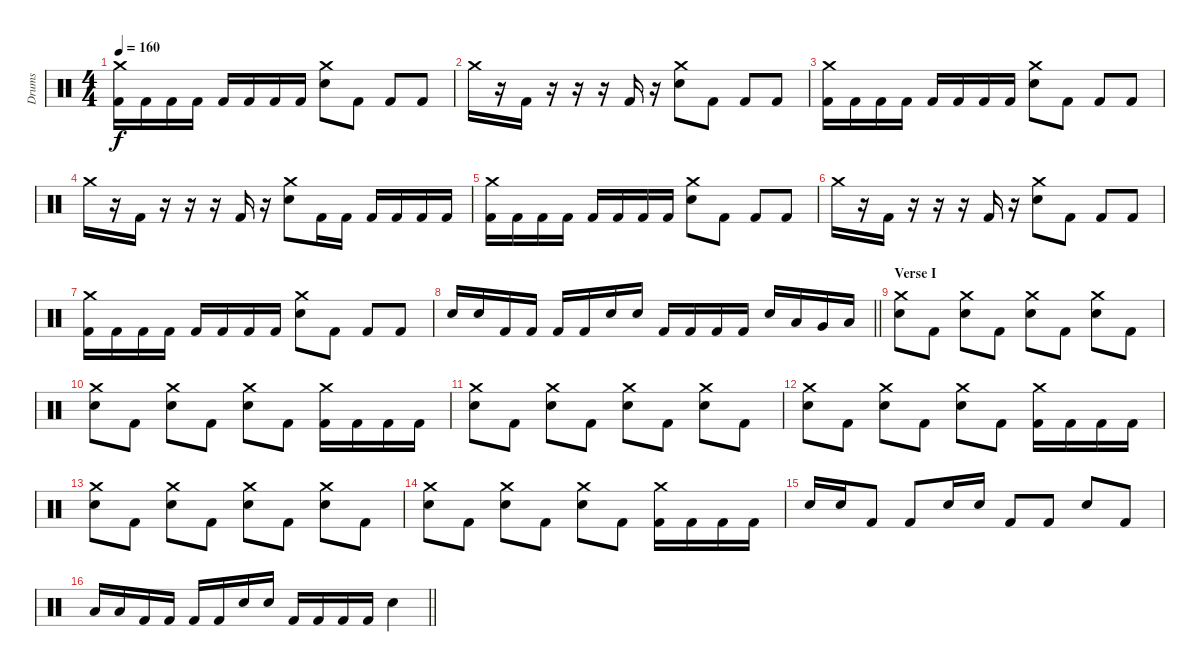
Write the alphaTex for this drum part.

\track ("Drums" "Drums") {instrument percussion}
\staff {score}
\articulation defaults
\ts (4 4)
\tempo 160
\clef neutral
\ks c
("Crash medium (hit)" "Kick (hit) 2").16{dy f} "Kick (hit) 2".16 "Kick (hit) 2".16 "Kick (hit) 2".16 "Kick (hit) 2".16 "Kick (hit) 2".16 "Kick (hit) 2".16 "Kick (hit) 2".16 ("Crash medium (hit)" "Snare (hit) 2").8 "Kick (hit) 2".8 "Kick (hit) 2".8 "Kick (hit) 2".8 |
"Crash medium (hit)".16 r.16 "Kick (hit) 2".16 r.16 r.16 r.16 "Kick (hit) 2".16 r.16 ("Crash medium (hit)" "Snare (hit) 2").8 "Kick (hit) 2".8 "Kick (hit) 2".8 "Kick (hit) 2".8 |
("Crash medium (hit)" "Kick (hit) 2").16 "Kick (hit) 2".16 "Kick (hit) 2".16 "Kick (hit) 2".16 "Kick (hit) 2".16 "Kick (hit) 2".16 "Kick (hit) 2".16 "Kick (hit) 2".16 ("Crash medium (hit)" "Snare (hit) 2").8 "Kick (hit) 2".8 "Kick (hit) 2".8 "Kick (hit) 2".8 |
"Crash medium (hit)".16 r.16 "Kick (hit) 2".16 r.16 r.16 r.16 "Kick (hit) 2".16 r.16 ("Crash medium (hit)" "Snare (hit) 2").8 "Kick (hit) 2".16 "Kick (hit) 2".16 "Kick (hit) 2".16 "Kick (hit) 2".16 "Kick (hit) 2".16 "Kick (hit) 2".16 |
("Crash medium (hit)" "Kick (hit) 2").16 "Kick (hit) 2".16 "Kick (hit) 2".16 "Kick (hit) 2".16 "Kick (hit) 2".16 "Kick (hit) 2".16 "Kick (hit) 2".16 "Kick (hit) 2".16 ("Crash medium (hit)" "Snare (hit) 2").8 "Kick (hit) 2".8 "Kick (hit) 2".8 "Kick (hit) 2".8 |
"Crash medium (hit)".16 r.16 "Kick (hit) 2".16 r.16 r.16 r.16 "Kick (hit) 2".16 r.16 ("Crash medium (hit)" "Snare (hit) 2").8 "Kick (hit) 2".8 "Kick (hit) 2".8 "Kick (hit) 2".8 |
("Crash medium (hit)" "Kick (hit) 2").16 "Kick (hit) 2".16 "Kick (hit) 2".16 "Kick (hit) 2".16 "Kick (hit) 2".16 "Kick (hit) 2".16 "Kick (hit) 2".16 "Kick (hit) 2".16 ("Crash medium (hit)" "Snare (hit) 2").8 "Kick (hit) 2".8 "Kick (hit) 2".8 "Kick (hit) 2".8 |
\barLineRight lightlight "Snare (hit) 2".16 "Snare (hit) 2".16 "Kick (hit) 2".16 "Kick (hit) 2".16 "Kick (hit) 2".16 "Kick (hit) 2".16 "Snare (hit) 2".16 "Snare (hit) 2".16 "Kick (hit) 2".16 "Kick (hit) 2".16 "Kick (hit) 2".16 "Kick (hit) 2".16 "Snare (hit) 2".16 "Low Tom (hit)".16 "Very Low Tom (hit)".16 "Low Floor Tom (hit)".16
|
\section ("" "Verse I")
("Crash medium (hit)" "Snare (hit) 2").8 "Kick (hit) 2".8 ("Crash medium (hit)" "Snare (hit) 2").8 "Kick (hit) 2".8 ("Crash medium (hit)" "Snare (hit) 2").8 "Kick (hit) 2".8 ("Crash medium (hit)" "Snare (hit) 2").8 "Kick (hit) 2".8 |
("Crash medium (hit)" "Snare (hit) 2").8 "Kick (hit) 2".8 ("Crash medium (hit)" "Snare (hit) 2").8 "Kick (hit) 2".8 ("Crash medium (hit)" "Snare (hit) 2").8 "Kick (hit) 2".8 ("Crash medium (hit)" "Kick (hit) 2").16 "Kick (hit) 2".16 "Kick (hit) 2".16 "Kick (hit) 2".16 |
("Crash medium (hit)" "Snare (hit) 2").8 "Kick (hit) 2".8 ("Crash medium (hit)" "Snare (hit) 2").8 "Kick (hit) 2".8 ("Crash medium (hit)" "Snare (hit) 2").8 "Kick (hit) 2".8 ("Crash medium (hit)" "Snare (hit) 2").8 "Kick (hit) 2".8 |
("Crash medium (hit)" "Snare (hit) 2").8 "Kick (hit) 2".8 ("Crash medium (hit)" "Snare (hit) 2").8 "Kick (hit) 2".8 ("Crash medium (hit)" "Snare (hit) 2").8 "Kick (hit) 2".8 ("Crash medium (hit)" "Kick (hit) 2").16 "Kick (hit) 2".16 "Kick (hit) 2".16 "Kick (hit) 2".16 |
("Crash medium (hit)" "Snare (hit) 2").8 "Kick (hit) 2".8 ("Crash medium (hit)" "Snare (hit) 2").8 "Kick (hit) 2".8 ("Crash medium (hit)" "Snare (hit) 2").8 "Kick (hit) 2".8 ("Crash medium (hit)" "Snare (hit) 2").8 "Kick (hit) 2".8 |
("Crash medium (hit)" "Snare (hit) 2").8 "Kick (hit) 2".8 ("Crash medium (hit)" "Snare (hit) 2").8 "Kick (hit) 2".8 ("Crash medium (hit)" "Snare (hit) 2").8 "Kick (hit) 2".8 ("Crash medium (hit)" "Kick (hit) 2").16 "Kick (hit) 2".16 "Kick (hit) 2".16 "Kick (hit) 2".16 |
"Snare (hit) 2".16 "Snare (hit) 2".16 "Kick (hit) 2".8 "Kick (hit) 2".8 "Snare (hit) 2".16 "Snare (hit) 2".16 "Kick (hit) 2".8 "Kick (hit) 2".8 "Snare (hit) 2".8 "Kick (hit) 2".8 |
\barLineRight lightlight "Low Tom (hit)".16 "Low Tom (hit)".16 "Kick (hit) 2".16 "Kick (hit) 2".16 "Kick (hit) 2".16 "Kick (hit) 2".16 "Snare (hit) 2".16 "Snare (hit) 2".16 "Kick (hit) 2".16 "Kick (hit) 2".16 "Kick (hit) 2".16 "Kick (hit) 2".16 "Snare (hit) 2".4
